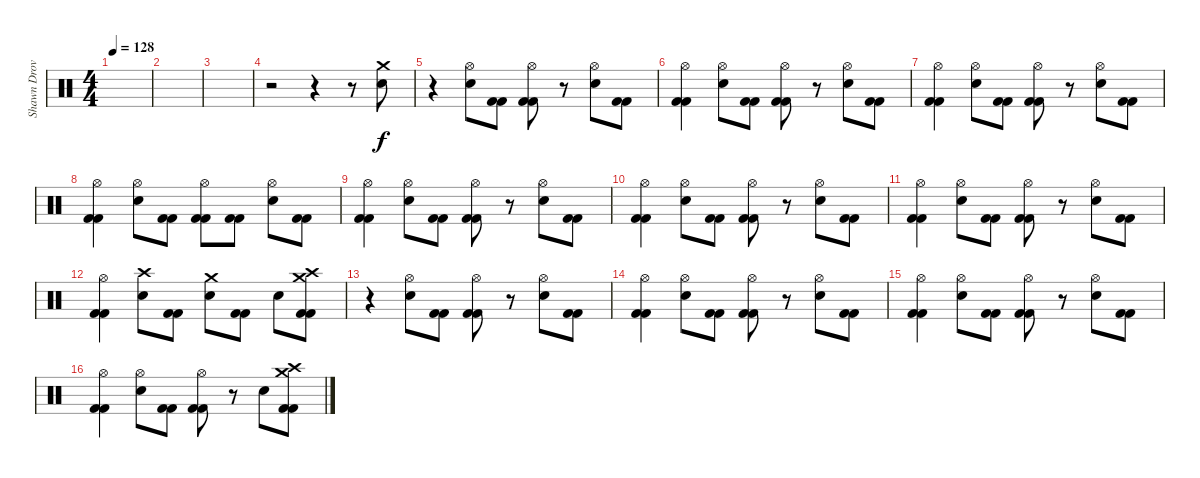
\track ("Shawn Drover" "Shawn Drov") {instrument percussion}
\staff {score}
\articulation defaults
\ts (4 4)
\tempo 128
\clef neutral
\ks c
|
|
|
r.2 r.4 r.8 ("Crash medium (hit)" "Electric Snare (hit)").8 |
r.4 ("Hi-Hat (open)" "Electric Snare (hit)").8 ("Kick (hit) 2" "Kick (hit) 2").8 ("Hi-Hat (open)" "Kick (hit) 2" "Kick (hit) 2").8 r.8 ("Hi-Hat (open)" "Electric Snare (hit)").8 ("Kick (hit) 2" "Kick (hit) 2").8 |
("Hi-Hat (open)" "Kick (hit) 2" "Kick (hit) 2").4 ("Hi-Hat (open)" "Electric Snare (hit)").8 ("Kick (hit) 2" "Kick (hit) 2").8 ("Hi-Hat (open)" "Kick (hit) 2" "Kick (hit) 2").8 r.8 ("Hi-Hat (open)" "Electric Snare (hit)").8 ("Kick (hit) 2" "Kick (hit) 2").8 |
("Hi-Hat (open)" "Kick (hit) 2" "Kick (hit) 2").4 ("Hi-Hat (open)" "Electric Snare (hit)").8 ("Kick (hit) 2" "Kick (hit) 2").8 ("Hi-Hat (open)" "Kick (hit) 2" "Kick (hit) 2").8 r.8 ("Hi-Hat (open)" "Electric Snare (hit)").8 ("Kick (hit) 2" "Kick (hit) 2").8 |
("Hi-Hat (open)" "Kick (hit) 2" "Kick (hit) 2").4 ("Hi-Hat (open)" "Electric Snare (hit)").8 ("Kick (hit) 2" "Kick (hit) 2").8 ("Hi-Hat (open)" "Kick (hit) 2" "Kick (hit) 2").8 ("Kick (hit) 2" "Kick (hit) 2").8 ("Hi-Hat (open)" "Electric Snare (hit)").8 ("Kick (hit) 2" "Kick (hit) 2").8 |
("Hi-Hat (open)" "Kick (hit) 2" "Kick (hit) 2").4 ("Hi-Hat (open)" "Electric Snare (hit)").8 ("Kick (hit) 2" "Kick (hit) 2").8 ("Hi-Hat (open)" "Kick (hit) 2" "Kick (hit) 2").8 r.8 ("Hi-Hat (open)" "Electric Snare (hit)").8 ("Kick (hit) 2" "Kick (hit) 2").8 |
("Hi-Hat (open)" "Kick (hit) 2" "Kick (hit) 2").4 ("Hi-Hat (open)" "Electric Snare (hit)").8 ("Kick (hit) 2" "Kick (hit) 2").8 ("Hi-Hat (open)" "Kick (hit) 2" "Kick (hit) 2").8 r.8 ("Hi-Hat (open)" "Electric Snare (hit)").8 ("Kick (hit) 2" "Kick (hit) 2").8 |
("Hi-Hat (open)" "Kick (hit) 2" "Kick (hit) 2").4 ("Hi-Hat (open)" "Electric Snare (hit)").8 ("Kick (hit) 2" "Kick (hit) 2").8 ("Hi-Hat (open)" "Kick (hit) 2" "Kick (hit) 2").8 r.8 ("Hi-Hat (open)" "Electric Snare (hit)").8 ("Kick (hit) 2" "Kick (hit) 2").8 |
("Hi-Hat (open)" "Kick (hit) 2" "Kick (hit) 2").4 ("Crash high (hit)" "Electric Snare (hit)").8 ("Kick (hit) 2" "Kick (hit) 2").8 ("Crash medium (hit)" "Electric Snare (hit)").8 ("Kick (hit) 2" "Kick (hit) 2").8 "Electric Snare (hit)".8 ("Crash high (hit)" "Crash medium (hit)" "Kick (hit) 2" "Kick (hit) 2").8 |
r.4 ("Hi-Hat (open)" "Electric Snare (hit)").8 ("Kick (hit) 2" "Kick (hit) 2").8 ("Hi-Hat (open)" "Kick (hit) 2" "Kick (hit) 2").8 r.8 ("Hi-Hat (open)" "Electric Snare (hit)").8 ("Kick (hit) 2" "Kick (hit) 2").8 |
("Hi-Hat (open)" "Kick (hit) 2" "Kick (hit) 2").4 ("Hi-Hat (open)" "Electric Snare (hit)").8 ("Kick (hit) 2" "Kick (hit) 2").8 ("Hi-Hat (open)" "Kick (hit) 2" "Kick (hit) 2").8 r.8 ("Hi-Hat (open)" "Electric Snare (hit)").8 ("Kick (hit) 2" "Kick (hit) 2").8 |
("Hi-Hat (open)" "Kick (hit) 2" "Kick (hit) 2").4 ("Hi-Hat (open)" "Electric Snare (hit)").8 ("Kick (hit) 2" "Kick (hit) 2").8 ("Hi-Hat (open)" "Kick (hit) 2" "Kick (hit) 2").8 r.8 ("Hi-Hat (open)" "Electric Snare (hit)").8 ("Kick (hit) 2" "Kick (hit) 2").8 |
("Hi-Hat (open)" "Kick (hit) 2" "Kick (hit) 2").4 ("Hi-Hat (open)" "Electric Snare (hit)").8 ("Kick (hit) 2" "Kick (hit) 2").8 ("Hi-Hat (open)" "Kick (hit) 2" "Kick (hit) 2").8 r.8 "Electric Snare (hit)".8 ("Crash medium (hit)" "Crash high (hit)" "Kick (hit) 2" "Kick (hit) 2").8
